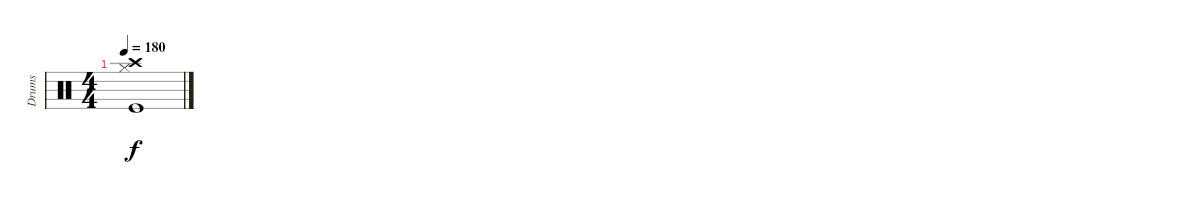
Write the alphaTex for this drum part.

\track ("Drums" "Drums") {instrument percussion}
\staff {score}
\articulation defaults
\ts (4 4)
\tempo 180
\clef neutral
\ks c
("Crash high (hit)" "Hi-Hat (closed)" "Kick (hit)").1{dy f}
